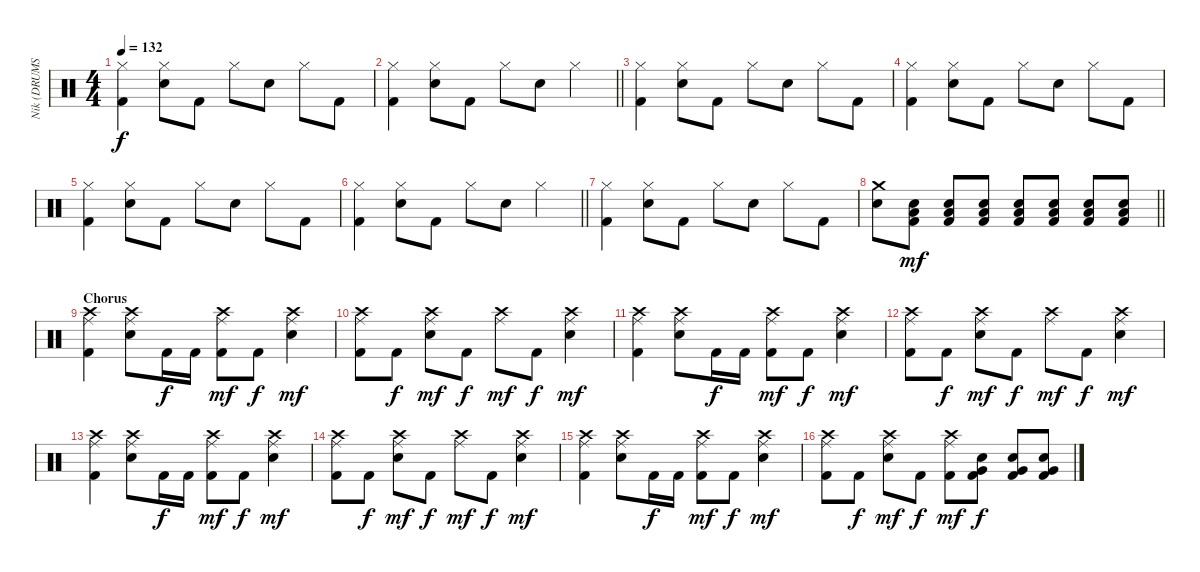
\track ("Nik (DRUMS)" "Nik (DRUMS") {instrument percussion}
\staff {score}
\articulation defaults
\ts (4 4)
\tempo 132
\clef neutral
\ks c
("Hi-Hat (closed)" "Kick (hit) 2").4{dy f} ("Hi-Hat (closed)" "Electric Snare (hit)").8 "Kick (hit) 2".8 "Hi-Hat (closed)".8 "Electric Snare (hit)".8 "Hi-Hat (closed)".8 "Kick (hit) 2".8 |
\barLineRight lightlight
("Hi-Hat (closed)" "Kick (hit) 2").4 ("Hi-Hat (closed)" "Electric Snare (hit)").8 "Kick (hit) 2".8 "Hi-Hat (closed)".8 "Electric Snare (hit)".8 "Hi-Hat (closed)".4 |
("Hi-Hat (closed)" "Kick (hit) 2").4 ("Hi-Hat (closed)" "Electric Snare (hit)").8 "Kick (hit) 2".8 "Hi-Hat (closed)".8 "Electric Snare (hit)".8 "Hi-Hat (closed)".8 "Kick (hit) 2".8 |
("Hi-Hat (closed)" "Kick (hit) 2").4 ("Hi-Hat (closed)" "Electric Snare (hit)").8 "Kick (hit) 2".8 "Hi-Hat (closed)".8 "Electric Snare (hit)".8 "Hi-Hat (closed)".8 "Kick (hit) 2".8 |
("Hi-Hat (closed)" "Kick (hit) 2").4 ("Hi-Hat (closed)" "Electric Snare (hit)").8 "Kick (hit) 2".8 "Hi-Hat (closed)".8 "Electric Snare (hit)".8 "Hi-Hat (closed)".8 "Kick (hit) 2".8 |
\barLineRight lightlight
("Hi-Hat (closed)" "Kick (hit) 2").4 ("Hi-Hat (closed)" "Electric Snare (hit)").8 "Kick (hit) 2".8 "Hi-Hat (closed)".8 "Electric Snare (hit)".8 "Hi-Hat (closed)".4 |
("Hi-Hat (closed)" "Kick (hit) 2").4 ("Hi-Hat (closed)" "Electric Snare (hit)").8 "Kick (hit) 2".8 "Hi-Hat (closed)".8 "Electric Snare (hit)".8 "Hi-Hat (closed)".8 "Kick (hit) 2".8 |
\barLineRight lightlight
("Crash medium (hit)" "Electric Snare (hit)").8 ("Electric Snare (hit)" "Low Floor Tom (hit)" "Kick (hit) 2").8{dy mf} ("Electric Snare (hit)" "Low Floor Tom (hit)" "Kick (hit) 2").8 ("Electric Snare (hit)" "Low Floor Tom (hit)" "Kick (hit) 2").8 ("Electric Snare (hit)" "Low Floor Tom (hit)" "Kick (hit) 2").8 ("Electric Snare (hit)" "Low Floor Tom (hit)" "Kick (hit) 2").8 ("Electric Snare (hit)" "Low Floor Tom (hit)" "Kick (hit) 2").8 ("Electric Snare (hit)" "Low Floor Tom (hit)" "Kick (hit) 2").8 |
\section ("" "Chorus")
("Crash high (hit)" "Ride (middle)" "Kick (hit) 2").4 ("Crash high (hit)" "Ride (middle)" "Electric Snare (hit)").8 "Kick (hit) 2".16{dy f} "Kick (hit) 2".16 ("Crash high (hit)" "Ride (middle)" "Kick (hit) 2").8{dy mf} "Kick (hit) 2".8{dy f} ("Crash high (hit)" "Ride (middle)" "Electric Snare (hit)").4{dy mf} |
("Crash high (hit)" "Ride (middle)" "Kick (hit) 2").8 "Kick (hit) 2".8{dy f} ("Crash high (hit)" "Ride (middle)" "Electric Snare (hit)").8{dy mf} "Kick (hit) 2".8{dy f} ("Crash high (hit)" "Ride (middle)").8{dy mf} "Kick (hit) 2".8{dy f} ("Crash high (hit)" "Ride (middle)" "Electric Snare (hit)").4{dy mf} |
("Crash high (hit)" "Ride (middle)" "Kick (hit) 2").4 ("Crash high (hit)" "Ride (middle)" "Electric Snare (hit)").8 "Kick (hit) 2".16{dy f} "Kick (hit) 2".16 ("Crash high (hit)" "Ride (middle)" "Kick (hit) 2").8{dy mf} "Kick (hit) 2".8{dy f} ("Crash high (hit)" "Ride (middle)" "Electric Snare (hit)").4{dy mf} |
("Crash high (hit)" "Ride (middle)" "Kick (hit) 2").8 "Kick (hit) 2".8{dy f} ("Crash high (hit)" "Ride (middle)" "Electric Snare (hit)").8{dy mf} "Kick (hit) 2".8{dy f} ("Crash high (hit)" "Ride (middle)").8{dy mf} "Kick (hit) 2".8{dy f} ("Crash high (hit)" "Ride (middle)" "Electric Snare (hit)").4{dy mf} |
("Crash high (hit)" "Ride (middle)" "Kick (hit) 2").4 ("Crash high (hit)" "Ride (middle)" "Electric Snare (hit)").8 "Kick (hit) 2".16{dy f} "Kick (hit) 2".16 ("Crash high (hit)" "Ride (middle)" "Kick (hit) 2").8{dy mf} "Kick (hit) 2".8{dy f} ("Crash high (hit)" "Ride (middle)" "Electric Snare (hit)").4{dy mf} |
("Crash high (hit)" "Ride (middle)" "Kick (hit) 2").8 "Kick (hit) 2".8{dy f} ("Crash high (hit)" "Ride (middle)" "Electric Snare (hit)").8{dy mf} "Kick (hit) 2".8{dy f} ("Crash high (hit)" "Ride (middle)").8{dy mf} "Kick (hit) 2".8{dy f} ("Crash high (hit)" "Ride (middle)" "Electric Snare (hit)").4{dy mf} |
("Crash high (hit)" "Ride (middle)" "Kick (hit) 2").4 ("Crash high (hit)" "Ride (middle)" "Electric Snare (hit)").8 "Kick (hit) 2".16{dy f} "Kick (hit) 2".16 ("Crash high (hit)" "Ride (middle)" "Kick (hit) 2").8{dy mf} "Kick (hit) 2".8{dy f} ("Crash high (hit)" "Ride (middle)" "Electric Snare (hit)").4{dy mf} |
("Crash high (hit)" "Ride (middle)" "Kick (hit) 2").8 "Kick (hit) 2".8{dy f} ("Crash high (hit)" "Ride (middle)" "Electric Snare (hit)").8{dy mf} "Kick (hit) 2".8{dy f} ("Crash high (hit)" "Ride (middle)" "Kick (hit) 2").8{dy mf} ("Electric Snare (hit)" "Very Low Tom (hit)" "Kick (hit) 2").8{dy f} ("Electric Snare (hit)" "Very Low Tom (hit)" "Kick (hit) 2").8 ("Electric Snare (hit)" "Very Low Tom (hit)" "Kick (hit) 2").8
